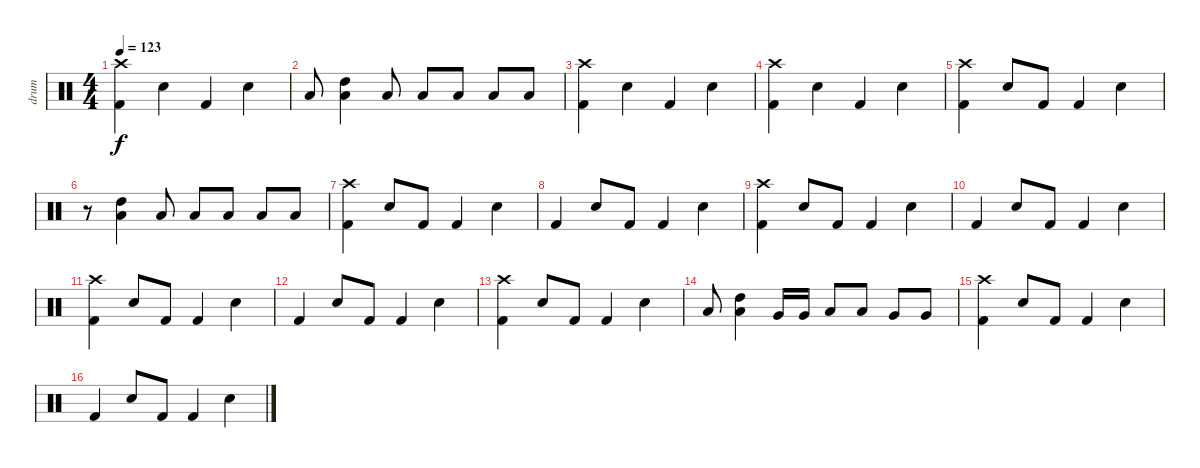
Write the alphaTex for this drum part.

\track ("drum" "drum") {instrument percussion}
\staff {score}
\articulation defaults
\ts (4 4)
\tempo 123
\clef neutral
\ks c
("Kick (hit) 2" "Crash high (hit)").4{dy f} "Snare (hit) 2".4 "Kick (hit) 2".4 "Snare (hit) 2".4 |
"Low Tom (hit)".8 ("Low Tom (hit)" "High Tom (hit)").4 "Low Tom (hit)".8 "Low Tom (hit)".8 "Low Tom (hit)".8 "Low Tom (hit)".8 "Low Tom (hit)".8 |
("Kick (hit) 2" "Crash high (hit)").4 "Snare (hit) 2".4 "Kick (hit) 2".4 "Snare (hit) 2".4 |
("Kick (hit) 2" "Crash high (hit)").4 "Snare (hit) 2".4 "Kick (hit) 2".4 "Snare (hit) 2".4 |
("Kick (hit) 2" "Crash high (hit)").4 "Snare (hit) 2".8 "Kick (hit) 2".8 "Kick (hit) 2".4 "Snare (hit) 2".4 |
r.8 ("Low Tom (hit)" "High Tom (hit)").4 "Low Tom (hit)".8 "Low Tom (hit)".8 "Low Tom (hit)".8 "Low Tom (hit)".8 "Low Tom (hit)".8 |
("Kick (hit) 2" "Crash high (hit)").4 "Snare (hit) 2".8 "Kick (hit) 2".8 "Kick (hit) 2".4 "Snare (hit) 2".4 |
"Kick (hit) 2".4 "Snare (hit) 2".8 "Kick (hit) 2".8 "Kick (hit) 2".4 "Snare (hit) 2".4 |
("Kick (hit) 2" "Crash high (hit)").4 "Snare (hit) 2".8 "Kick (hit) 2".8 "Kick (hit) 2".4 "Snare (hit) 2".4 |
"Kick (hit) 2".4 "Snare (hit) 2".8 "Kick (hit) 2".8 "Kick (hit) 2".4 "Snare (hit) 2".4 |
("Kick (hit) 2" "Crash high (hit)").4 "Snare (hit) 2".8 "Kick (hit) 2".8 "Kick (hit) 2".4 "Snare (hit) 2".4 |
"Kick (hit) 2".4 "Snare (hit) 2".8 "Kick (hit) 2".8 "Kick (hit) 2".4 "Snare (hit) 2".4 |
("Kick (hit) 2" "Crash high (hit)").4 "Snare (hit) 2".8 "Kick (hit) 2".8 "Kick (hit) 2".4 "Snare (hit) 2".4 |
"Low Tom (hit)".8 ("Low Tom (hit)" "High Tom (hit)").4 "Very Low Tom (hit)".16 "Very Low Tom (hit)".16 "Low Tom (hit)".8 "Low Tom (hit)".8 "Very Low Tom (hit)".8 "Very Low Tom (hit)".8 |
("Kick (hit) 2" "Crash high (hit)").4 "Snare (hit) 2".8 "Kick (hit) 2".8 "Kick (hit) 2".4 "Snare (hit) 2".4 |
"Kick (hit) 2".4 "Snare (hit) 2".8 "Kick (hit) 2".8 "Kick (hit) 2".4 "Snare (hit) 2".4
